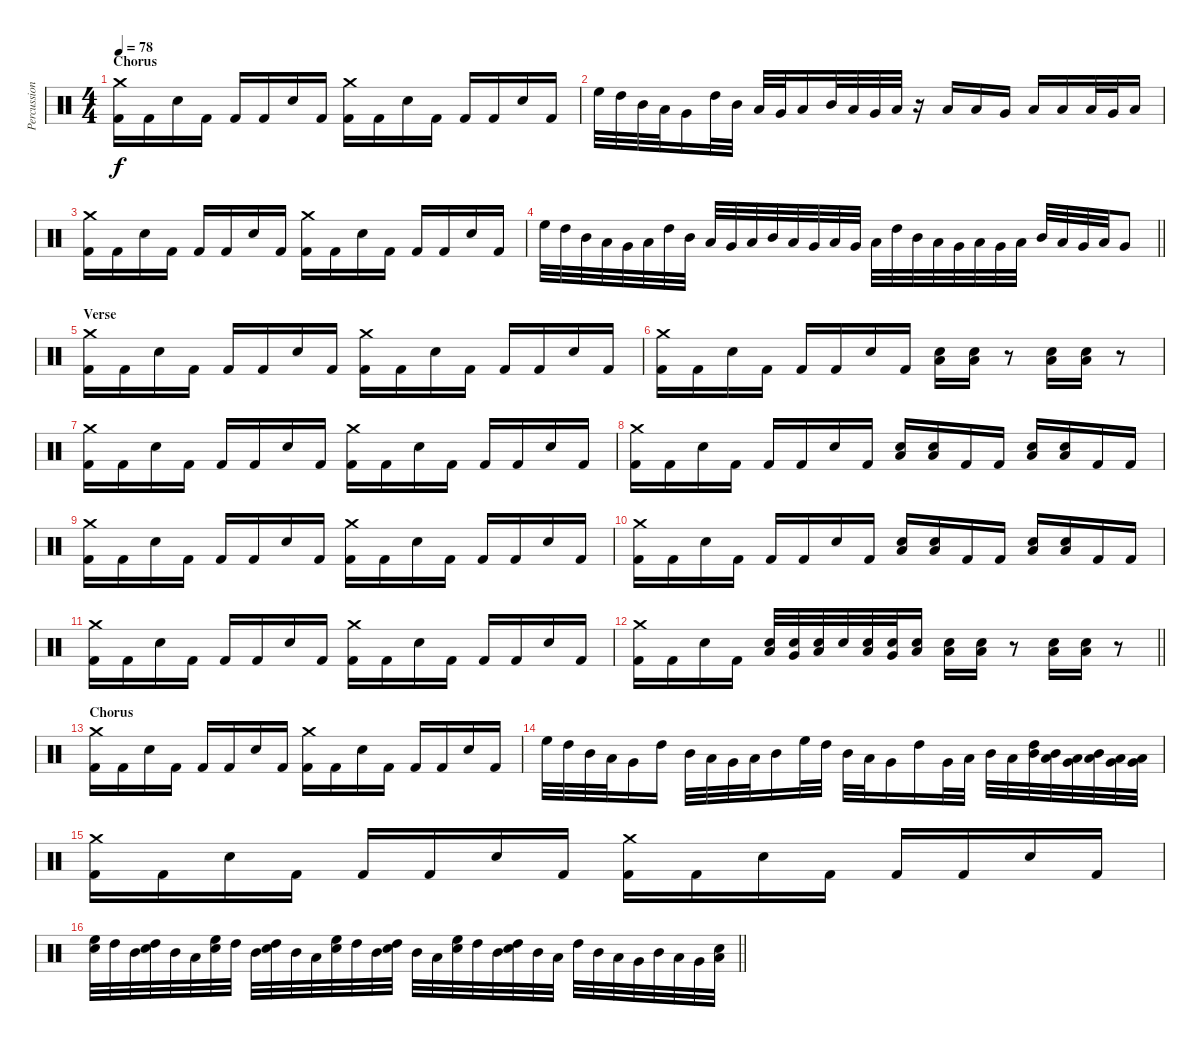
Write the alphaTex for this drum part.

\track ("Percussion" "Percussion") {instrument percussion}
\staff {score}
\articulation defaults
\ts (4 4)
\section ("" "Chorus")
\tempo 78
\clef neutral
\ks c
("Crash medium (hit)" "Kick (hit) 2").16{dy f} "Kick (hit) 2".16 "Snare (hit) 2".16 "Kick (hit) 2".16 "Kick (hit) 2".16 "Kick (hit) 2".16 "Snare (hit) 2".16 "Kick (hit) 2".16 ("Crash medium (hit)" "Kick (hit) 2").16 "Kick (hit) 2".16 "Snare (hit) 2".16 "Kick (hit) 2".16 "Kick (hit) 2".16 "Kick (hit) 2".16 "Snare (hit) 2".16 "Kick (hit) 2".16{balance 16} |
"High Floor Tom (hit)".32{balance 0} "High Tom (hit)".32 "Mid Tom (hit)".32 "Low Tom (hit)".32 "Very Low Tom (hit)".16 "High Tom (hit)".32 "Mid Tom (hit)".32 "Low Tom (hit)".32 "Very Low Tom (hit)".32 "Low Floor Tom (hit)".16 "Mid Tom (hit)".32 "Low Tom (hit)".32 "Very Low Tom (hit)".32 "Low Floor Tom (hit)".32 r.16 "Low Floor Tom (hit)".16 "Low Tom (hit)".16 "Very Low Tom (hit)".16 "Low Floor Tom (hit)".16 "Low Floor Tom (hit)".16 "Low Tom (hit)".32 "Very Low Tom (hit)".32 "Low Floor Tom (hit)".16 |
("Crash medium (hit)" "Kick (hit) 2").16{balance 8} "Kick (hit) 2".16 "Snare (hit) 2".16 "Kick (hit) 2".16 "Kick (hit) 2".16 "Kick (hit) 2".16 "Snare (hit) 2".16 "Kick (hit) 2".16 ("Crash medium (hit)" "Kick (hit) 2").16 "Kick (hit) 2".16 "Snare (hit) 2".16 "Kick (hit) 2".16 "Kick (hit) 2".16 "Kick (hit) 2".16 "Snare (hit) 2".16 "Kick (hit) 2".16{balance 16} |
\barLineRight lightlight "High Floor Tom (hit)".32{balance 0} "High Tom (hit)".32 "Mid Tom (hit)".32 "Low Tom (hit)".32 "Very Low Tom (hit)".32 "Low Floor Tom (hit)".32 "High Tom (hit)".32 "Mid Tom (hit)".32 "Low Tom (hit)".32 "Very Low Tom (hit)".32 "Low Floor Tom (hit)".32 "Mid Tom (hit)".32 "Low Tom (hit)".32 "Very Low Tom (hit)".32 "Low Floor Tom (hit)".32 "Very Low Tom (hit)".32 "Low Floor Tom (hit)".32 "High Tom (hit)".32 "Mid Tom (hit)".32 "Low Tom (hit)".32 "Very Low Tom (hit)".32 "Low Floor Tom (hit)".32 "Very Low Tom (hit)".32 "Low Tom (hit)".32 "Mid Tom (hit)".32 "Low Tom (hit)".32 "Very Low Tom (hit)".32 "Low Floor Tom (hit)".32 "Very Low Tom (hit)".8
|
\section ("" "Verse")
("Crash medium (hit)" "Kick (hit) 2").16{balance 8} "Kick (hit) 2".16 "Snare (hit) 2".16 "Kick (hit) 2".16 "Kick (hit) 2".16 "Kick (hit) 2".16 "Snare (hit) 2".16 "Kick (hit) 2".16 ("Crash medium (hit)" "Kick (hit) 2").16 "Kick (hit) 2".16 "Snare (hit) 2".16 "Kick (hit) 2".16 "Kick (hit) 2".16 "Kick (hit) 2".16 "Snare (hit) 2".16 "Kick (hit) 2".16 |
("Crash medium (hit)" "Kick (hit) 2").16 "Kick (hit) 2".16 "Snare (hit) 2".16 "Kick (hit) 2".16 "Kick (hit) 2".16 "Kick (hit) 2".16 "Snare (hit) 2".16 "Kick (hit) 2".16 ("Electric Snare (hit)" "Low Tom (hit)").16 ("Electric Snare (hit)" "Low Tom (hit)").16 r.8 ("Electric Snare (hit)" "Low Floor Tom (hit)").16 ("Electric Snare (hit)" "Low Floor Tom (hit)").16 r.8 |
("Crash medium (hit)" "Kick (hit) 2").16 "Kick (hit) 2".16 "Snare (hit) 2".16 "Kick (hit) 2".16 "Kick (hit) 2".16 "Kick (hit) 2".16 "Snare (hit) 2".16 "Kick (hit) 2".16 ("Crash medium (hit)" "Kick (hit) 2").16 "Kick (hit) 2".16 "Snare (hit) 2".16 "Kick (hit) 2".16 "Kick (hit) 2".16 "Kick (hit) 2".16 "Snare (hit) 2".16 "Kick (hit) 2".16 |
("Crash medium (hit)" "Kick (hit) 2").16 "Kick (hit) 2".16 "Snare (hit) 2".16 "Kick (hit) 2".16 "Kick (hit) 2".16 "Kick (hit) 2".16 "Snare (hit) 2".16 "Kick (hit) 2".16 ("Electric Snare (hit)" "Low Tom (hit)").16 ("Electric Snare (hit)" "Low Tom (hit)").16 "Kick (hit) 2".16 "Kick (hit) 2".16 ("Electric Snare (hit)" "Low Floor Tom (hit)").16 ("Electric Snare (hit)" "Low Floor Tom (hit)").16 "Kick (hit) 2".16 "Kick (hit) 2".16 |
("Crash medium (hit)" "Kick (hit) 2").16 "Kick (hit) 2".16 "Snare (hit) 2".16 "Kick (hit) 2".16 "Kick (hit) 2".16 "Kick (hit) 2".16 "Snare (hit) 2".16 "Kick (hit) 2".16 ("Crash medium (hit)" "Kick (hit) 2").16 "Kick (hit) 2".16 "Snare (hit) 2".16 "Kick (hit) 2".16 "Kick (hit) 2".16 "Kick (hit) 2".16 "Snare (hit) 2".16 "Kick (hit) 2".16 |
("Crash medium (hit)" "Kick (hit) 2").16 "Kick (hit) 2".16 "Snare (hit) 2".16 "Kick (hit) 2".16 "Kick (hit) 2".16 "Kick (hit) 2".16 "Snare (hit) 2".16 "Kick (hit) 2".16 ("Electric Snare (hit)" "Low Tom (hit)").16 ("Electric Snare (hit)" "Low Tom (hit)").16 "Kick (hit) 2".16 "Kick (hit) 2".16 ("Electric Snare (hit)" "Low Floor Tom (hit)").16 ("Electric Snare (hit)" "Low Floor Tom (hit)").16 "Kick (hit) 2".16 "Kick (hit) 2".16 |
("Crash medium (hit)" "Kick (hit) 2").16 "Kick (hit) 2".16 "Snare (hit) 2".16 "Kick (hit) 2".16 "Kick (hit) 2".16 "Kick (hit) 2".16 "Snare (hit) 2".16 "Kick (hit) 2".16 ("Crash medium (hit)" "Kick (hit) 2").16 "Kick (hit) 2".16 "Snare (hit) 2".16 "Kick (hit) 2".16 "Kick (hit) 2".16 "Kick (hit) 2".16 "Snare (hit) 2".16 "Kick (hit) 2".16 |
\barLineRight lightlight
("Crash medium (hit)" "Kick (hit) 2").16 "Kick (hit) 2".16 "Snare (hit) 2".16 "Kick (hit) 2".16 ("Snare (hit) 2" "Low Tom (hit)").32 ("Snare (hit) 2" "Very Low Tom (hit)").32 ("Snare (hit) 2" "Low Floor Tom (hit)").32 "Snare (hit) 2".32 ("Snare (hit) 2" "Low Tom (hit)").32 ("Snare (hit) 2" "Very Low Tom (hit)").32 ("Snare (hit) 2" "Low Floor Tom (hit)").16 ("Electric Snare (hit)" "Low Tom (hit)").16 ("Electric Snare (hit)" "Low Tom (hit)").16 r.8 ("Electric Snare (hit)" "Low Floor Tom (hit)").16 ("Electric Snare (hit)" "Low Floor Tom (hit)").16 r.8 |
\section ("" "Chorus")
("Crash medium (hit)" "Kick (hit) 2").16 "Kick (hit) 2".16 "Snare (hit) 2".16 "Kick (hit) 2".16 "Kick (hit) 2".16 "Kick (hit) 2".16 "Snare (hit) 2".16 "Kick (hit) 2".16 ("Crash medium (hit)" "Kick (hit) 2").16 "Kick (hit) 2".16 "Snare (hit) 2".16 "Kick (hit) 2".16 "Kick (hit) 2".16 "Kick (hit) 2".16 "Snare (hit) 2".16 "Kick (hit) 2".16 |
"High Floor Tom (hit)".32 "High Tom (hit)".32 "Mid Tom (hit)".32 "Low Tom (hit)".32 "Very Low Tom (hit)".16 "High Tom (hit)".16 "Mid Tom (hit)".32 "Low Tom (hit)".32 "Very Low Tom (hit)".32 "Low Tom (hit)".32 "Mid Tom (hit)".16 "High Floor Tom (hit)".32 "High Tom (hit)".32 "Mid Tom (hit)".32 "Low Tom (hit)".32 "Very Low Tom (hit)".16 "High Tom (hit)".16 "Very Low Tom (hit)".32 "Low Tom (hit)".32 "Mid Tom (hit)".32 "Low Tom (hit)".32 ("High Tom (hit)" "Mid Tom (hit)").32 ("Mid Tom (hit)" "Low Tom (hit)").32 ("Low Tom (hit)" "Very Low Tom (hit)").32 ("Mid Tom (hit)" "Low Tom (hit)").32 ("Low Tom (hit)" "Very Low Tom (hit)").32 ("Very Low Tom (hit)" "Low Floor Tom (hit)").32 |
("Crash medium (hit)" "Kick (hit) 2").16 "Kick (hit) 2".16 "Snare (hit) 2".16 "Kick (hit) 2".16 "Kick (hit) 2".16 "Kick (hit) 2".16 "Snare (hit) 2".16 "Kick (hit) 2".16 ("Crash medium (hit)" "Kick (hit) 2").16 "Kick (hit) 2".16 "Snare (hit) 2".16 "Kick (hit) 2".16 "Kick (hit) 2".16 "Kick (hit) 2".16 "Snare (hit) 2".16 "Kick (hit) 2".16 |
\barLineRight lightlight
("High Floor Tom (hit)" "Electric Snare (hit)").32 "High Tom (hit)".32 "Mid Tom (hit)".32 ("High Tom (hit)" "Electric Snare (hit)").32 "Mid Tom (hit)".32 "Low Tom (hit)".32 ("High Floor Tom (hit)" "Electric Snare (hit)").32 "High Tom (hit)".32 "Mid Tom (hit)".32 ("High Tom (hit)" "Electric Snare (hit)").32 "Mid Tom (hit)".32 "Low Tom (hit)".32 ("High Floor Tom (hit)" "Electric Snare (hit)").32 "High Tom (hit)".32 "Mid Tom (hit)".32 ("High Tom (hit)" "Electric Snare (hit)").32 "Mid Tom (hit)".32 "Low Tom (hit)".32 ("High Floor Tom (hit)" "Electric Snare (hit)").32 "High Tom (hit)".32 "Mid Tom (hit)".32 ("High Tom (hit)" "Electric Snare (hit)").32 "Mid Tom (hit)".32 "Low Tom (hit)".32 "High Tom (hit)".32 "Mid Tom (hit)".32 "Low Tom (hit)".32 "Very Low Tom (hit)".32 "Mid Tom (hit)".32 "Low Tom (hit)".32 "Very Low Tom (hit)".32 ("Low Floor Tom (hit)" "Electric Snare (hit)").32
